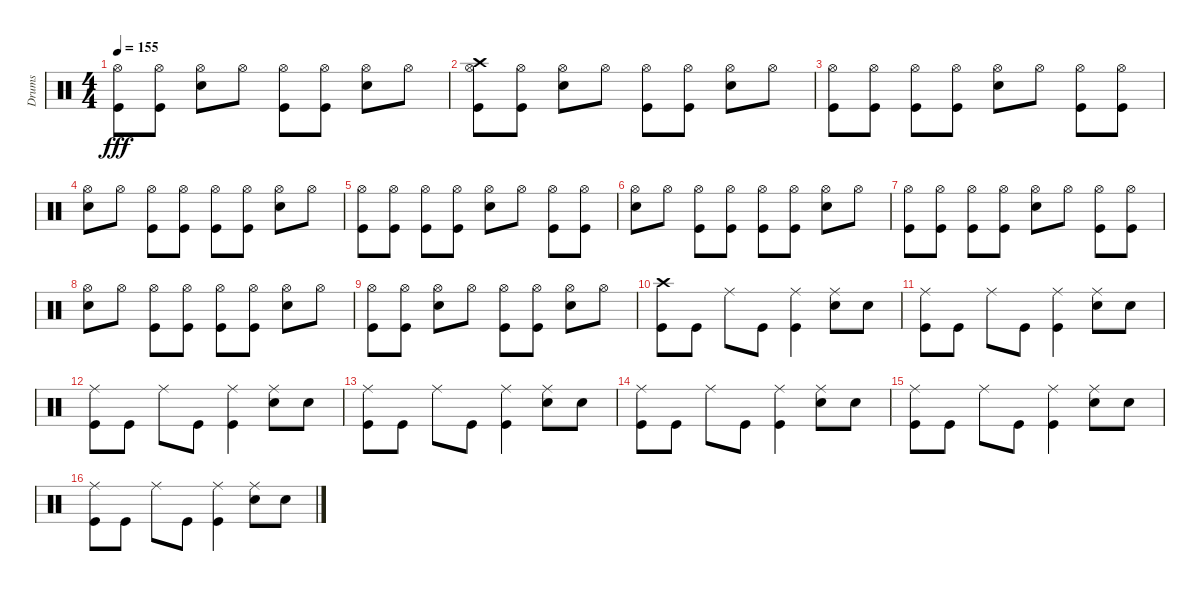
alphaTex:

\track ("Drums               " "Drums     ") {instrument percussion}
\staff {score}
\articulation defaults
\ts (4 4)
\tempo 155
\clef neutral
\ks c
("Kick (hit)" "Hi-Hat (open)").8{dy fff} ("Kick (hit)" "Hi-Hat (open)").8 ("Snare (hit) 2" "Hi-Hat (open)").8 "Hi-Hat (open)".8 ("Kick (hit)" "Hi-Hat (open)").8 ("Kick (hit)" "Hi-Hat (open)").8 ("Snare (hit) 2" "Hi-Hat (open)").8 "Hi-Hat (open)".8 |
("Hi-Hat (open)" "Kick (hit)" "Crash high (hit)").8 ("Hi-Hat (open)" "Kick (hit)").8 ("Hi-Hat (open)" "Snare (hit) 2").8 "Hi-Hat (open)".8 ("Hi-Hat (open)" "Kick (hit)").8 ("Hi-Hat (open)" "Kick (hit)").8 ("Hi-Hat (open)" "Snare (hit) 2").8 "Hi-Hat (open)".8 |
("Kick (hit)" "Hi-Hat (open)").8 ("Kick (hit)" "Hi-Hat (open)").8 ("Hi-Hat (open)" "Kick (hit)").8 ("Hi-Hat (open)" "Kick (hit)").8 ("Hi-Hat (open)" "Snare (hit) 2").8 "Hi-Hat (open)".8 ("Hi-Hat (open)" "Kick (hit)").8 ("Hi-Hat (open)" "Kick (hit)").8 |
("Snare (hit) 2" "Hi-Hat (open)").8 "Hi-Hat (open)".8 ("Kick (hit)" "Hi-Hat (open)").8 ("Kick (hit)" "Hi-Hat (open)").8 ("Kick (hit)" "Hi-Hat (open)").8 ("Kick (hit)" "Hi-Hat (open)").8 ("Snare (hit) 2" "Hi-Hat (open)").8 "Hi-Hat (open)".8 |
("Kick (hit)" "Hi-Hat (open)").8 ("Kick (hit)" "Hi-Hat (open)").8 ("Kick (hit)" "Hi-Hat (open)").8 ("Kick (hit)" "Hi-Hat (open)").8 ("Snare (hit) 2" "Hi-Hat (open)").8 "Hi-Hat (open)".8 ("Kick (hit)" "Hi-Hat (open)").8 ("Kick (hit)" "Hi-Hat (open)").8 |
("Snare (hit) 2" "Hi-Hat (open)").8 "Hi-Hat (open)".8 ("Kick (hit)" "Hi-Hat (open)").8 ("Kick (hit)" "Hi-Hat (open)").8 ("Kick (hit)" "Hi-Hat (open)").8 ("Kick (hit)" "Hi-Hat (open)").8 ("Snare (hit) 2" "Hi-Hat (open)").8 "Hi-Hat (open)".8 |
("Kick (hit)" "Hi-Hat (open)").8 ("Kick (hit)" "Hi-Hat (open)").8 ("Kick (hit)" "Hi-Hat (open)").8 ("Kick (hit)" "Hi-Hat (open)").8 ("Snare (hit) 2" "Hi-Hat (open)").8 "Hi-Hat (open)".8 ("Kick (hit)" "Hi-Hat (open)").8 ("Kick (hit)" "Hi-Hat (open)").8 |
("Snare (hit) 2" "Hi-Hat (open)").8 "Hi-Hat (open)".8 ("Hi-Hat (open)" "Kick (hit)").8 ("Hi-Hat (open)" "Kick (hit)").8 ("Hi-Hat (open)" "Kick (hit)").8 ("Hi-Hat (open)" "Kick (hit)").8 ("Hi-Hat (open)" "Snare (hit) 2").8 "Hi-Hat (open)".8 |
("Kick (hit)" "Hi-Hat (open)").8 ("Kick (hit)" "Hi-Hat (open)").8 ("Snare (hit) 2" "Hi-Hat (open)").8 "Hi-Hat (open)".8 ("Kick (hit)" "Hi-Hat (open)").8 ("Kick (hit)" "Hi-Hat (open)").8 ("Snare (hit) 2" "Hi-Hat (open)").8 "Hi-Hat (open)".8 |
("Kick (hit)" "Crash high (hit)").8 "Kick (hit)".8 "Ride (middle)".8 "Kick (hit)".8 ("Kick (hit)" "Ride (middle)").4 ("Snare (hit) 2" "Ride (middle)").8 "Snare (hit) 2".8 |
("Kick (hit)" "Ride (middle)").8 "Kick (hit)".8 "Ride (middle)".8 "Kick (hit)".8 ("Kick (hit)" "Ride (middle)").4 ("Snare (hit) 2" "Ride (middle)").8 "Snare (hit) 2".8 |
("Kick (hit)" "Ride (middle)").8 "Kick (hit)".8 "Ride (middle)".8 "Kick (hit)".8 ("Kick (hit)" "Ride (middle)").4 ("Snare (hit) 2" "Ride (middle)").8 "Snare (hit) 2".8 |
("Kick (hit)" "Ride (middle)").8 "Kick (hit)".8 "Ride (middle)".8 "Kick (hit)".8 ("Kick (hit)" "Ride (middle)").4 ("Snare (hit) 2" "Ride (middle)").8 "Snare (hit) 2".8 |
("Kick (hit)" "Ride (middle)").8 "Kick (hit)".8 "Ride (middle)".8 "Kick (hit)".8 ("Kick (hit)" "Ride (middle)").4 ("Snare (hit) 2" "Ride (middle)").8 "Snare (hit) 2".8 |
("Kick (hit)" "Ride (middle)").8 "Kick (hit)".8 "Ride (middle)".8 "Kick (hit)".8 ("Kick (hit)" "Ride (middle)").4 ("Snare (hit) 2" "Ride (middle)").8 "Snare (hit) 2".8 |
("Kick (hit)" "Ride (middle)").8 "Kick (hit)".8 "Ride (middle)".8 "Kick (hit)".8 ("Kick (hit)" "Ride (middle)").4 ("Snare (hit) 2" "Ride (middle)").8 "Snare (hit) 2".8
